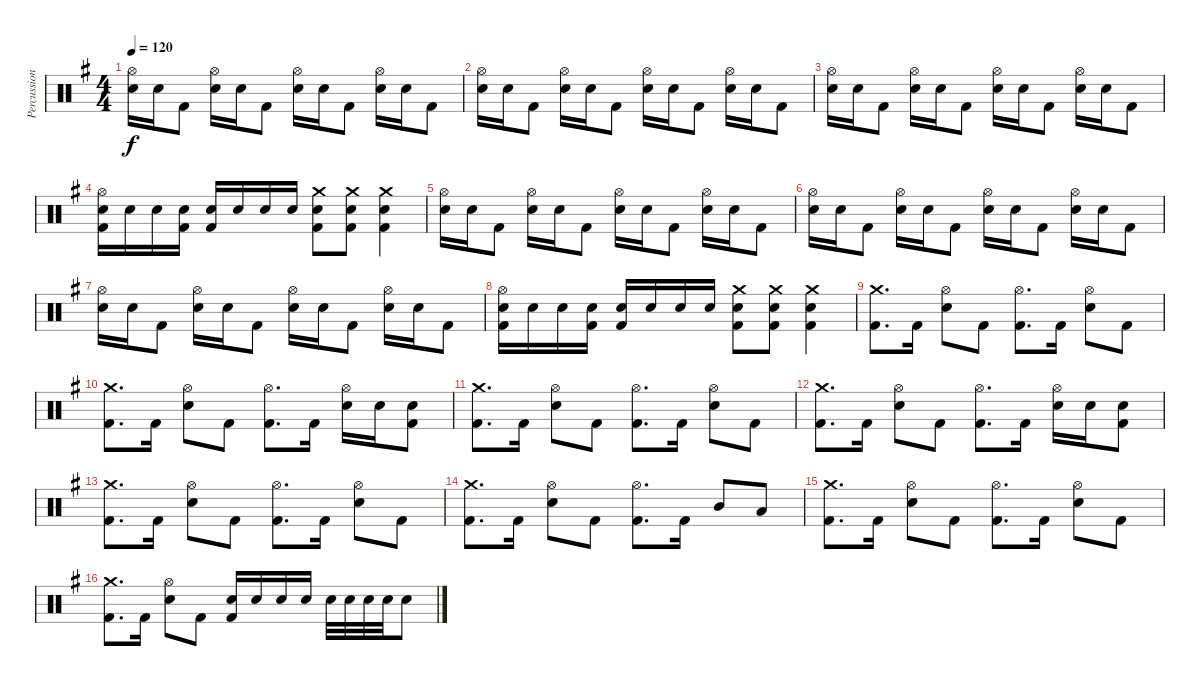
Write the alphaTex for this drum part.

\track ("Percussion" "Percussion") {instrument percussion}
\staff {score}
\articulation defaults
\ts (4 4)
\tempo 120
\clef neutral
\ks g
("Hi-Hat (open)" "Snare (hit) 2").16{dy f} "Snare (hit) 2".16 "Kick (hit) 2".8 ("Hi-Hat (open)" "Snare (hit) 2").16 "Snare (hit) 2".16 "Kick (hit) 2".8 ("Hi-Hat (open)" "Snare (hit) 2").16 "Snare (hit) 2".16 "Kick (hit) 2".8 ("Hi-Hat (open)" "Snare (hit) 2").16 "Snare (hit) 2".16 "Kick (hit) 2".8 |
("Hi-Hat (open)" "Snare (hit) 2").16 "Snare (hit) 2".16 "Kick (hit) 2".8 ("Hi-Hat (open)" "Snare (hit) 2").16 "Snare (hit) 2".16 "Kick (hit) 2".8 ("Hi-Hat (open)" "Snare (hit) 2").16 "Snare (hit) 2".16 "Kick (hit) 2".8 ("Hi-Hat (open)" "Snare (hit) 2").16 "Snare (hit) 2".16 "Kick (hit) 2".8 |
("Hi-Hat (open)" "Snare (hit) 2").16 "Snare (hit) 2".16 "Kick (hit) 2".8 ("Hi-Hat (open)" "Snare (hit) 2").16 "Snare (hit) 2".16 "Kick (hit) 2".8 ("Hi-Hat (open)" "Snare (hit) 2").16 "Snare (hit) 2".16 "Kick (hit) 2".8 ("Hi-Hat (open)" "Snare (hit) 2").16 "Snare (hit) 2".16 "Kick (hit) 2".8 |
("Hi-Hat (open)" "Snare (hit) 2" "Kick (hit) 2").16 "Snare (hit) 2".16 "Snare (hit) 2".16 ("Snare (hit) 2" "Kick (hit) 2").16 ("Snare (hit) 2" "Kick (hit) 2").16 "Snare (hit) 2".16 "Snare (hit) 2".16 "Snare (hit) 2".16 ("Crash medium (hit)" "Snare (hit) 2" "Kick (hit) 2").8 ("Crash medium (hit)" "Snare (hit) 2" "Kick (hit) 2").8 ("Crash medium (hit)" "Snare (hit) 2" "Kick (hit) 2").4 |
("Hi-Hat (open)" "Snare (hit) 2").16 "Snare (hit) 2".16 "Kick (hit) 2".8 ("Hi-Hat (open)" "Snare (hit) 2").16 "Snare (hit) 2".16 "Kick (hit) 2".8 ("Hi-Hat (open)" "Snare (hit) 2").16 "Snare (hit) 2".16 "Kick (hit) 2".8 ("Hi-Hat (open)" "Snare (hit) 2").16 "Snare (hit) 2".16 "Kick (hit) 2".8 |
("Hi-Hat (open)" "Snare (hit) 2").16 "Snare (hit) 2".16 "Kick (hit) 2".8 ("Hi-Hat (open)" "Snare (hit) 2").16 "Snare (hit) 2".16 "Kick (hit) 2".8 ("Hi-Hat (open)" "Snare (hit) 2").16 "Snare (hit) 2".16 "Kick (hit) 2".8 ("Hi-Hat (open)" "Snare (hit) 2").16 "Snare (hit) 2".16 "Kick (hit) 2".8 |
("Hi-Hat (open)" "Snare (hit) 2").16 "Snare (hit) 2".16 "Kick (hit) 2".8 ("Hi-Hat (open)" "Snare (hit) 2").16 "Snare (hit) 2".16 "Kick (hit) 2".8 ("Hi-Hat (open)" "Snare (hit) 2").16 "Snare (hit) 2".16 "Kick (hit) 2".8 ("Hi-Hat (open)" "Snare (hit) 2").16 "Snare (hit) 2".16 "Kick (hit) 2".8 |
("Hi-Hat (open)" "Snare (hit) 2" "Kick (hit) 2").16 "Snare (hit) 2".16 "Snare (hit) 2".16 ("Snare (hit) 2" "Kick (hit) 2").16 ("Snare (hit) 2" "Kick (hit) 2").16 "Snare (hit) 2".16 "Snare (hit) 2".16 "Snare (hit) 2".16 ("Crash medium (hit)" "Snare (hit) 2" "Kick (hit) 2").8 ("Crash medium (hit)" "Snare (hit) 2" "Kick (hit) 2").8 ("Crash medium (hit)" "Snare (hit) 2" "Kick (hit) 2").4 |
("Crash medium (hit)" "Kick (hit) 2").8{d} "Kick (hit) 2".16 ("Hi-Hat (open)" "Snare (hit) 2").8 "Kick (hit) 2".8 ("Hi-Hat (open)" "Kick (hit) 2").8{d} "Kick (hit) 2".16 ("Hi-Hat (open)" "Snare (hit) 2").8 "Kick (hit) 2".8 |
("Crash medium (hit)" "Kick (hit) 2").8{d} "Kick (hit) 2".16 ("Hi-Hat (open)" "Snare (hit) 2").8 "Kick (hit) 2".8 ("Hi-Hat (open)" "Kick (hit) 2").8{d} "Kick (hit) 2".16 ("Hi-Hat (open)" "Snare (hit) 2").16 "Snare (hit) 2".16 ("Snare (hit) 2" "Kick (hit) 2").8 |
("Crash medium (hit)" "Kick (hit) 2").8{d} "Kick (hit) 2".16 ("Hi-Hat (open)" "Snare (hit) 2").8 "Kick (hit) 2".8 ("Hi-Hat (open)" "Kick (hit) 2").8{d} "Kick (hit) 2".16 ("Hi-Hat (open)" "Snare (hit) 2").8 "Kick (hit) 2".8 |
("Crash medium (hit)" "Kick (hit) 2").8{d} "Kick (hit) 2".16 ("Hi-Hat (open)" "Snare (hit) 2").8 "Kick (hit) 2".8 ("Hi-Hat (open)" "Kick (hit) 2").8{d} "Kick (hit) 2".16 ("Hi-Hat (open)" "Snare (hit) 2").16 "Snare (hit) 2".16 ("Snare (hit) 2" "Kick (hit) 2").8 |
("Crash medium (hit)" "Kick (hit) 2").8{d} "Kick (hit) 2".16 ("Hi-Hat (open)" "Snare (hit) 2").8 "Kick (hit) 2".8 ("Hi-Hat (open)" "Kick (hit) 2").8{d} "Kick (hit) 2".16 ("Hi-Hat (open)" "Snare (hit) 2").8 "Kick (hit) 2".8 |
("Crash medium (hit)" "Kick (hit) 2").8{d} "Kick (hit) 2".16 ("Hi-Hat (open)" "Snare (hit) 2").8 "Kick (hit) 2".8 ("Hi-Hat (open)" "Kick (hit) 2").8{d} "Kick (hit) 2".16 "Mid Tom (hit)".8 "Low Floor Tom (hit)".8 |
("Crash medium (hit)" "Kick (hit) 2").8{d} "Kick (hit) 2".16 ("Hi-Hat (open)" "Snare (hit) 2").8 "Kick (hit) 2".8 ("Hi-Hat (open)" "Kick (hit) 2").8{d} "Kick (hit) 2".16 ("Hi-Hat (open)" "Snare (hit) 2").8 "Kick (hit) 2".8 |
("Crash medium (hit)" "Kick (hit) 2").8{d} "Kick (hit) 2".16 ("Hi-Hat (open)" "Snare (hit) 2").8 "Kick (hit) 2".8 ("Snare (hit) 2" "Kick (hit) 2").16 "Snare (hit) 2".16 "Snare (hit) 2".16 "Snare (hit) 2".16 "Snare (hit) 2".32 "Snare (hit) 2".32 "Snare (hit) 2".32 "Snare (hit) 2".32 "Snare (hit) 2".8
